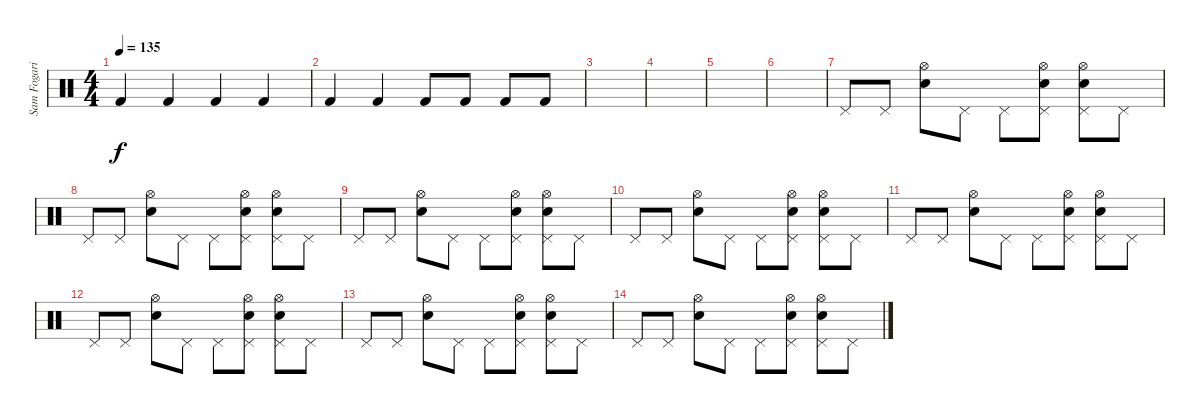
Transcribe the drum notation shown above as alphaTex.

\track ("Sam Fogarino" "Sam Fogari") {instrument percussion}
\staff {score}
\articulation defaults
\ts (4 4)
\tempo 135
\clef neutral
\ks c "Kick (hit) 2".4{dy f} "Kick (hit) 2".4 "Kick (hit) 2".4 "Kick (hit) 2".4
|
"Kick (hit) 2".4 "Kick (hit) 2".4 "Kick (hit) 2".8 "Kick (hit) 2".8 "Kick (hit) 2".8 "Kick (hit) 2".8 |
|
|
|
|
"Pedal Hi-Hat (hit)".8 "Pedal Hi-Hat (hit)".8 ("Electric Snare (hit)" "Hi-Hat (open)").8 "Pedal Hi-Hat (hit)".8 "Pedal Hi-Hat (hit)".8 ("Electric Snare (hit)" "Pedal Hi-Hat (hit)" "Hi-Hat (open)").8 ("Electric Snare (hit)" "Pedal Hi-Hat (hit)" "Hi-Hat (open)").8 "Pedal Hi-Hat (hit)".8 |
"Pedal Hi-Hat (hit)".8 "Pedal Hi-Hat (hit)".8 ("Electric Snare (hit)" "Hi-Hat (open)").8 "Pedal Hi-Hat (hit)".8 "Pedal Hi-Hat (hit)".8 ("Electric Snare (hit)" "Pedal Hi-Hat (hit)" "Hi-Hat (open)").8 ("Electric Snare (hit)" "Pedal Hi-Hat (hit)" "Hi-Hat (open)").8 "Pedal Hi-Hat (hit)".8 |
"Pedal Hi-Hat (hit)".8 "Pedal Hi-Hat (hit)".8 ("Electric Snare (hit)" "Hi-Hat (open)").8 "Pedal Hi-Hat (hit)".8 "Pedal Hi-Hat (hit)".8 ("Electric Snare (hit)" "Pedal Hi-Hat (hit)" "Hi-Hat (open)").8 ("Electric Snare (hit)" "Pedal Hi-Hat (hit)" "Hi-Hat (open)").8 "Pedal Hi-Hat (hit)".8 |
"Pedal Hi-Hat (hit)".8 "Pedal Hi-Hat (hit)".8 ("Electric Snare (hit)" "Hi-Hat (open)").8 "Pedal Hi-Hat (hit)".8 "Pedal Hi-Hat (hit)".8 ("Electric Snare (hit)" "Pedal Hi-Hat (hit)" "Hi-Hat (open)").8 ("Electric Snare (hit)" "Pedal Hi-Hat (hit)" "Hi-Hat (open)").8 "Pedal Hi-Hat (hit)".8 |
"Pedal Hi-Hat (hit)".8 "Pedal Hi-Hat (hit)".8 ("Electric Snare (hit)" "Hi-Hat (open)").8 "Pedal Hi-Hat (hit)".8 "Pedal Hi-Hat (hit)".8 ("Electric Snare (hit)" "Pedal Hi-Hat (hit)" "Hi-Hat (open)").8 ("Electric Snare (hit)" "Pedal Hi-Hat (hit)" "Hi-Hat (open)").8 "Pedal Hi-Hat (hit)".8 |
"Pedal Hi-Hat (hit)".8 "Pedal Hi-Hat (hit)".8 ("Electric Snare (hit)" "Hi-Hat (open)").8 "Pedal Hi-Hat (hit)".8 "Pedal Hi-Hat (hit)".8 ("Electric Snare (hit)" "Pedal Hi-Hat (hit)" "Hi-Hat (open)").8 ("Electric Snare (hit)" "Pedal Hi-Hat (hit)" "Hi-Hat (open)").8 "Pedal Hi-Hat (hit)".8 |
"Pedal Hi-Hat (hit)".8 "Pedal Hi-Hat (hit)".8 ("Electric Snare (hit)" "Hi-Hat (open)").8 "Pedal Hi-Hat (hit)".8 "Pedal Hi-Hat (hit)".8 ("Electric Snare (hit)" "Pedal Hi-Hat (hit)" "Hi-Hat (open)").8 ("Electric Snare (hit)" "Pedal Hi-Hat (hit)" "Hi-Hat (open)").8 "Pedal Hi-Hat (hit)".8 |
"Pedal Hi-Hat (hit)".8 "Pedal Hi-Hat (hit)".8 ("Electric Snare (hit)" "Hi-Hat (open)").8 "Pedal Hi-Hat (hit)".8 "Pedal Hi-Hat (hit)".8 ("Electric Snare (hit)" "Pedal Hi-Hat (hit)" "Hi-Hat (open)").8 ("Electric Snare (hit)" "Pedal Hi-Hat (hit)" "Hi-Hat (open)").8 "Pedal Hi-Hat (hit)".8
